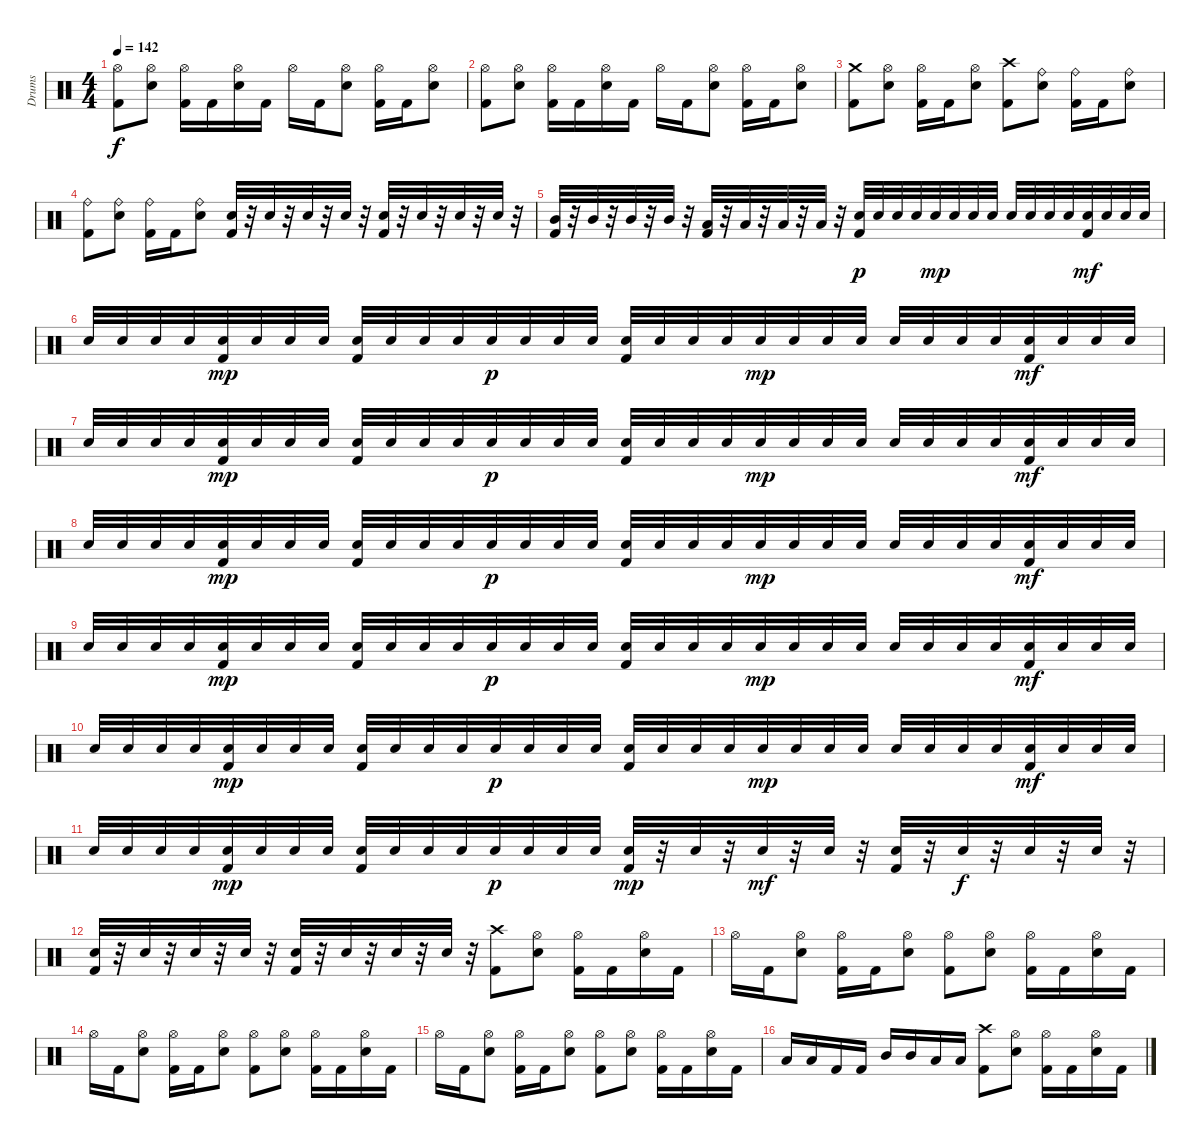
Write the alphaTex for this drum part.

\track ("Drums" "Drums") {instrument percussion}
\staff {score}
\articulation defaults
\ts (4 4)
\tempo 142
\clef neutral
\ks c
("Kick (hit) 2" "Hi-Hat (open)").8{dy f} ("Electric Snare (hit)" "Hi-Hat (open)").8 ("Hi-Hat (open)" "Kick (hit) 2").16 "Kick (hit) 2".16 ("Hi-Hat (open)" "Electric Snare (hit)").16 "Kick (hit) 2".16 "Hi-Hat (open)".16 "Kick (hit) 2".16 ("Hi-Hat (open)" "Electric Snare (hit)").8 ("Hi-Hat (open)" "Kick (hit) 2").16 "Kick (hit) 2".16 ("Hi-Hat (open)" "Electric Snare (hit)").8 |
("Kick (hit) 2" "Hi-Hat (open)").8 ("Electric Snare (hit)" "Hi-Hat (open)").8 ("Hi-Hat (open)" "Kick (hit) 2").16 "Kick (hit) 2".16 ("Hi-Hat (open)" "Electric Snare (hit)").16 "Kick (hit) 2".16 "Hi-Hat (open)".16 "Kick (hit) 2".16 ("Hi-Hat (open)" "Electric Snare (hit)").8 ("Hi-Hat (open)" "Kick (hit) 2").16 "Kick (hit) 2".16 ("Hi-Hat (open)" "Electric Snare (hit)").8 |
("Kick (hit) 2" "Crash medium (hit)").8 ("Electric Snare (hit)" "Hi-Hat (open)").8 ("Hi-Hat (open)" "Kick (hit) 2").16 "Kick (hit) 2".16 ("Hi-Hat (open)" "Electric Snare (hit)").8 ("Kick (hit) 2" "Crash high (hit)").8 ("Electric Snare (hit)" "Ride (bell)").8 ("Kick (hit) 2" "Ride (bell)").16 "Kick (hit) 2".16 ("Electric Snare (hit)" "Ride (bell)").8 |
("Kick (hit) 2" "Ride (bell)").8 ("Electric Snare (hit)" "Ride (bell)").8 ("Kick (hit) 2" "Ride (bell)").16 "Kick (hit) 2".16 ("Electric Snare (hit)" "Ride (bell)").8 ("Electric Snare (hit)" "Kick (hit) 2").32 r.32 "Electric Snare (hit)".32 r.32 "Electric Snare (hit)".32 r.32 "Electric Snare (hit)".32 r.32 ("Electric Snare (hit)" "Kick (hit) 2").32 r.32 "Electric Snare (hit)".32 r.32 "Electric Snare (hit)".32 r.32 "Electric Snare (hit)".32 r.32 |
("Kick (hit) 2" "Mid Tom (hit)").32 r.32 "Mid Tom (hit)".32 r.32 "Mid Tom (hit)".32 r.32 "Mid Tom (hit)".32 r.32 ("Kick (hit) 2" "Low Tom (hit)").32 r.32 "Low Tom (hit)".32 r.32 "Low Tom (hit)".32 r.32 "Low Tom (hit)".32 r.32 ("Kick (hit) 2" "Electric Snare (hit)").32{dy p} "Electric Snare (hit)".32 "Electric Snare (hit)".32 "Electric Snare (hit)".32 "Electric Snare (hit)".32{dy mp} "Electric Snare (hit)".32 "Electric Snare (hit)".32 "Electric Snare (hit)".32 "Electric Snare (hit)".32 "Electric Snare (hit)".32 "Electric Snare (hit)".32 "Electric Snare (hit)".32 ("Kick (hit) 2" "Electric Snare (hit)").32{dy mf} "Electric Snare (hit)".32 "Electric Snare (hit)".32 "Electric Snare (hit)".32 |
"Electric Snare (hit)".32 "Electric Snare (hit)".32 "Electric Snare (hit)".32 "Electric Snare (hit)".32 ("Kick (hit) 2" "Electric Snare (hit)").32{dy mp} "Electric Snare (hit)".32 "Electric Snare (hit)".32 "Electric Snare (hit)".32 ("Kick (hit) 2" "Electric Snare (hit)").32 "Electric Snare (hit)".32 "Electric Snare (hit)".32 "Electric Snare (hit)".32 "Electric Snare (hit)".32{dy p} "Electric Snare (hit)".32 "Electric Snare (hit)".32 "Electric Snare (hit)".32 ("Kick (hit) 2" "Electric Snare (hit)").32 "Electric Snare (hit)".32 "Electric Snare (hit)".32 "Electric Snare (hit)".32 "Electric Snare (hit)".32{dy mp} "Electric Snare (hit)".32 "Electric Snare (hit)".32 "Electric Snare (hit)".32 "Electric Snare (hit)".32 "Electric Snare (hit)".32 "Electric Snare (hit)".32 "Electric Snare (hit)".32 ("Kick (hit) 2" "Electric Snare (hit)").32{dy mf} "Electric Snare (hit)".32 "Electric Snare (hit)".32 "Electric Snare (hit)".32 |
"Electric Snare (hit)".32 "Electric Snare (hit)".32 "Electric Snare (hit)".32 "Electric Snare (hit)".32 ("Kick (hit) 2" "Electric Snare (hit)").32{dy mp} "Electric Snare (hit)".32 "Electric Snare (hit)".32 "Electric Snare (hit)".32 ("Kick (hit) 2" "Electric Snare (hit)").32 "Electric Snare (hit)".32 "Electric Snare (hit)".32 "Electric Snare (hit)".32 "Electric Snare (hit)".32{dy p} "Electric Snare (hit)".32 "Electric Snare (hit)".32 "Electric Snare (hit)".32 ("Kick (hit) 2" "Electric Snare (hit)").32 "Electric Snare (hit)".32 "Electric Snare (hit)".32 "Electric Snare (hit)".32 "Electric Snare (hit)".32{dy mp} "Electric Snare (hit)".32 "Electric Snare (hit)".32 "Electric Snare (hit)".32 "Electric Snare (hit)".32 "Electric Snare (hit)".32 "Electric Snare (hit)".32 "Electric Snare (hit)".32 ("Kick (hit) 2" "Electric Snare (hit)").32{dy mf} "Electric Snare (hit)".32 "Electric Snare (hit)".32 "Electric Snare (hit)".32 |
"Electric Snare (hit)".32 "Electric Snare (hit)".32 "Electric Snare (hit)".32 "Electric Snare (hit)".32 ("Kick (hit) 2" "Electric Snare (hit)").32{dy mp} "Electric Snare (hit)".32 "Electric Snare (hit)".32 "Electric Snare (hit)".32 ("Kick (hit) 2" "Electric Snare (hit)").32 "Electric Snare (hit)".32 "Electric Snare (hit)".32 "Electric Snare (hit)".32 "Electric Snare (hit)".32{dy p} "Electric Snare (hit)".32 "Electric Snare (hit)".32 "Electric Snare (hit)".32 ("Kick (hit) 2" "Electric Snare (hit)").32 "Electric Snare (hit)".32 "Electric Snare (hit)".32 "Electric Snare (hit)".32 "Electric Snare (hit)".32{dy mp} "Electric Snare (hit)".32 "Electric Snare (hit)".32 "Electric Snare (hit)".32 "Electric Snare (hit)".32 "Electric Snare (hit)".32 "Electric Snare (hit)".32 "Electric Snare (hit)".32 ("Kick (hit) 2" "Electric Snare (hit)").32{dy mf} "Electric Snare (hit)".32 "Electric Snare (hit)".32 "Electric Snare (hit)".32 |
"Electric Snare (hit)".32 "Electric Snare (hit)".32 "Electric Snare (hit)".32 "Electric Snare (hit)".32 ("Kick (hit) 2" "Electric Snare (hit)").32{dy mp} "Electric Snare (hit)".32 "Electric Snare (hit)".32 "Electric Snare (hit)".32 ("Kick (hit) 2" "Electric Snare (hit)").32 "Electric Snare (hit)".32 "Electric Snare (hit)".32 "Electric Snare (hit)".32 "Electric Snare (hit)".32{dy p} "Electric Snare (hit)".32 "Electric Snare (hit)".32 "Electric Snare (hit)".32 ("Kick (hit) 2" "Electric Snare (hit)").32 "Electric Snare (hit)".32 "Electric Snare (hit)".32 "Electric Snare (hit)".32 "Electric Snare (hit)".32{dy mp} "Electric Snare (hit)".32 "Electric Snare (hit)".32 "Electric Snare (hit)".32 "Electric Snare (hit)".32 "Electric Snare (hit)".32 "Electric Snare (hit)".32 "Electric Snare (hit)".32 ("Kick (hit) 2" "Electric Snare (hit)").32{dy mf} "Electric Snare (hit)".32 "Electric Snare (hit)".32 "Electric Snare (hit)".32 |
"Electric Snare (hit)".32 "Electric Snare (hit)".32 "Electric Snare (hit)".32 "Electric Snare (hit)".32 ("Kick (hit) 2" "Electric Snare (hit)").32{dy mp} "Electric Snare (hit)".32 "Electric Snare (hit)".32 "Electric Snare (hit)".32 ("Kick (hit) 2" "Electric Snare (hit)").32 "Electric Snare (hit)".32 "Electric Snare (hit)".32 "Electric Snare (hit)".32 "Electric Snare (hit)".32{dy p} "Electric Snare (hit)".32 "Electric Snare (hit)".32 "Electric Snare (hit)".32 ("Kick (hit) 2" "Electric Snare (hit)").32 "Electric Snare (hit)".32 "Electric Snare (hit)".32 "Electric Snare (hit)".32 "Electric Snare (hit)".32{dy mp} "Electric Snare (hit)".32 "Electric Snare (hit)".32 "Electric Snare (hit)".32 "Electric Snare (hit)".32 "Electric Snare (hit)".32 "Electric Snare (hit)".32 "Electric Snare (hit)".32 ("Kick (hit) 2" "Electric Snare (hit)").32{dy mf} "Electric Snare (hit)".32 "Electric Snare (hit)".32 "Electric Snare (hit)".32 |
"Electric Snare (hit)".32 "Electric Snare (hit)".32 "Electric Snare (hit)".32 "Electric Snare (hit)".32 ("Kick (hit) 2" "Electric Snare (hit)").32{dy mp} "Electric Snare (hit)".32 "Electric Snare (hit)".32 "Electric Snare (hit)".32 ("Kick (hit) 2" "Electric Snare (hit)").32 "Electric Snare (hit)".32 "Electric Snare (hit)".32 "Electric Snare (hit)".32 "Electric Snare (hit)".32{dy p} "Electric Snare (hit)".32 "Electric Snare (hit)".32 "Electric Snare (hit)".32 ("Electric Snare (hit)" "Kick (hit) 2").32{dy mp} r.32 "Electric Snare (hit)".32 r.32 "Electric Snare (hit)".32{dy mf} r.32 "Electric Snare (hit)".32 r.32 ("Electric Snare (hit)" "Kick (hit) 2").32 r.32 "Electric Snare (hit)".32{dy f} r.32 "Electric Snare (hit)".32 r.32 "Electric Snare (hit)".32 r.32 |
("Kick (hit) 2" "Electric Snare (hit)").32 r.32 "Electric Snare (hit)".32 r.32 "Electric Snare (hit)".32 r.32 "Electric Snare (hit)".32 r.32 ("Kick (hit) 2" "Electric Snare (hit)").32 r.32 "Electric Snare (hit)".32 r.32 "Electric Snare (hit)".32 r.32 "Electric Snare (hit)".32 r.32 ("Kick (hit) 2" "Crash high (hit)").8 ("Electric Snare (hit)" "Hi-Hat (open)").8 ("Hi-Hat (open)" "Kick (hit) 2").16 "Kick (hit) 2".16 ("Hi-Hat (open)" "Electric Snare (hit)").16 "Kick (hit) 2".16 |
"Hi-Hat (open)".16 "Kick (hit) 2".16 ("Hi-Hat (open)" "Electric Snare (hit)").8 ("Hi-Hat (open)" "Kick (hit) 2").16 "Kick (hit) 2".16 ("Hi-Hat (open)" "Electric Snare (hit)").8 ("Kick (hit) 2" "Hi-Hat (open)").8 ("Electric Snare (hit)" "Hi-Hat (open)").8 ("Hi-Hat (open)" "Kick (hit) 2").16 "Kick (hit) 2".16 ("Hi-Hat (open)" "Electric Snare (hit)").16 "Kick (hit) 2".16 |
"Hi-Hat (open)".16 "Kick (hit) 2".16 ("Hi-Hat (open)" "Electric Snare (hit)").8 ("Hi-Hat (open)" "Kick (hit) 2").16 "Kick (hit) 2".16 ("Hi-Hat (open)" "Electric Snare (hit)").8 ("Kick (hit) 2" "Hi-Hat (open)").8 ("Electric Snare (hit)" "Hi-Hat (open)").8 ("Hi-Hat (open)" "Kick (hit) 2").16 "Kick (hit) 2".16 ("Hi-Hat (open)" "Electric Snare (hit)").16 "Kick (hit) 2".16 |
"Hi-Hat (open)".16 "Kick (hit) 2".16 ("Hi-Hat (open)" "Electric Snare (hit)").8 ("Hi-Hat (open)" "Kick (hit) 2").16 "Kick (hit) 2".16 ("Hi-Hat (open)" "Electric Snare (hit)").8 ("Kick (hit) 2" "Hi-Hat (open)").8 ("Electric Snare (hit)" "Hi-Hat (open)").8 ("Hi-Hat (open)" "Kick (hit) 2").16 "Kick (hit) 2".16 ("Hi-Hat (open)" "Electric Snare (hit)").16 "Kick (hit) 2".16 |
"Low Tom (hit)".16 "Low Tom (hit)".16 "Kick (hit) 2".16 "Kick (hit) 2".16 "Mid Tom (hit)".16 "Mid Tom (hit)".16 "Low Floor Tom (hit)".16 "Low Floor Tom (hit)".16 ("Kick (hit) 2" "Crash high (hit)").8 ("Electric Snare (hit)" "Hi-Hat (open)").8 ("Hi-Hat (open)" "Kick (hit) 2").16 "Kick (hit) 2".16 ("Hi-Hat (open)" "Electric Snare (hit)").16 "Kick (hit) 2".16
